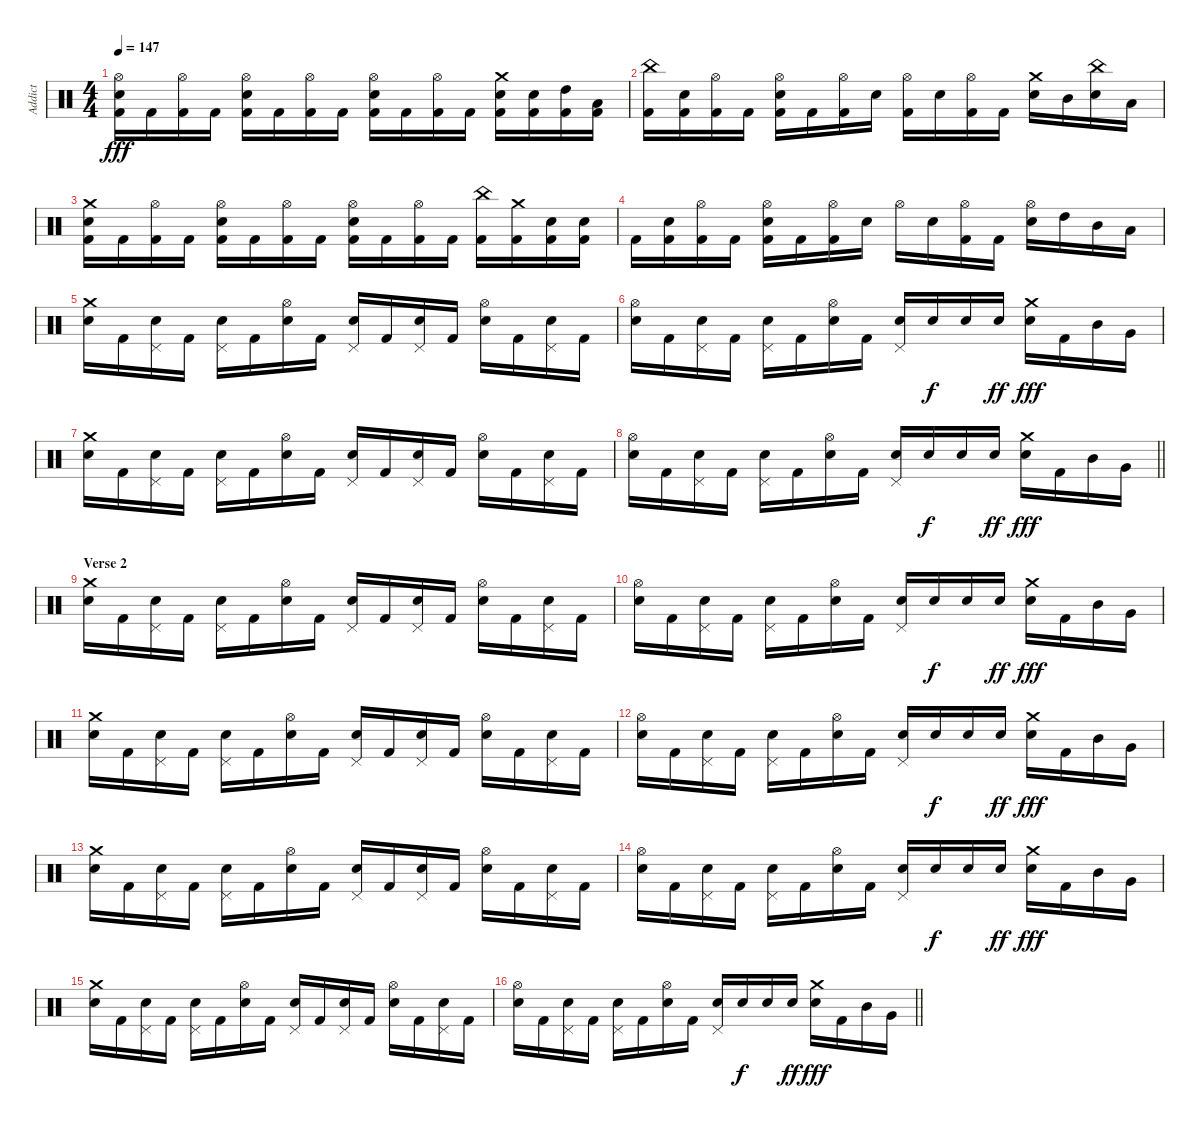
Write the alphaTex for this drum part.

\track ("Addict" "Addict") {instrument percussion}
\staff {score}
\articulation defaults
\ts (4 4)
\tempo 147
\clef neutral
\ks c
("Kick (hit) 2" "Snare (hit) 2" "Hi-Hat (open)").16{dy fff} "Kick (hit) 2".16 ("Kick (hit) 2" "Hi-Hat (open)").16 "Kick (hit) 2".16 ("Kick (hit) 2" "Snare (hit) 2" "Hi-Hat (open)").16 "Kick (hit) 2".16 ("Kick (hit) 2" "Hi-Hat (open)").16 "Kick (hit) 2".16 ("Kick (hit) 2" "Snare (hit) 2" "Hi-Hat (open)").16 "Kick (hit) 2".16 ("Kick (hit) 2" "Hi-Hat (open)").16 "Kick (hit) 2".16 ("Kick (hit) 2" "Snare (hit) 2" "Crash medium (hit)").16 ("Kick (hit) 2" "Snare (hit) 2").16 ("Kick (hit) 2" "High Tom (hit)").16 ("Kick (hit) 2" "Low Tom (hit)").16 |
("Kick (hit) 2" "China (hit)").16 ("Kick (hit) 2" "Snare (hit) 2").16 ("Kick (hit) 2" "Hi-Hat (open)").16 "Kick (hit) 2".16 ("Kick (hit) 2" "Snare (hit) 2" "Hi-Hat (open)").16 "Kick (hit) 2".16 ("Kick (hit) 2" "Hi-Hat (open)").16 "Snare (hit) 2".16 ("Kick (hit) 2" "Hi-Hat (open)").16 "Snare (hit) 2".16 ("Kick (hit) 2" "Hi-Hat (open)").16 "Kick (hit) 2".16 ("Snare (hit) 2" "Crash medium (hit)").16 "Mid Tom (hit)".16 ("Snare (hit) 2" "China (hit)").16 "Low Tom (hit)".16 |
("Kick (hit) 2" "Snare (hit) 2" "Crash medium (hit)").16 "Kick (hit) 2".16 ("Kick (hit) 2" "Hi-Hat (open)").16 "Kick (hit) 2".16 ("Kick (hit) 2" "Snare (hit) 2" "Hi-Hat (open)").16 "Kick (hit) 2".16 ("Kick (hit) 2" "Hi-Hat (open)").16 "Kick (hit) 2".16 ("Kick (hit) 2" "Snare (hit) 2" "Hi-Hat (open)").16 "Kick (hit) 2".16 ("Kick (hit) 2" "Hi-Hat (open)").16 "Kick (hit) 2".16 ("Kick (hit) 2" "China (hit)").16 ("Kick (hit) 2" "Crash medium (hit)").16 ("Kick (hit) 2" "Snare (hit) 2").16 ("Kick (hit) 2" "Snare (hit) 2").16 |
"Kick (hit) 2".16 ("Kick (hit) 2" "Snare (hit) 2").16 ("Kick (hit) 2" "Hi-Hat (open)").16 "Kick (hit) 2".16 ("Kick (hit) 2" "Snare (hit) 2" "Hi-Hat (open)").16 "Kick (hit) 2".16 ("Kick (hit) 2" "Hi-Hat (open)").16 "Snare (hit) 2".16 "Hi-Hat (open)".16 "Snare (hit) 2".16 ("Kick (hit) 2" "Hi-Hat (open)").16 "Kick (hit) 2".16 ("Snare (hit) 2" "Hi-Hat (open)").16 "High Tom (hit)".16 "Mid Tom (hit)".16 "Low Tom (hit)".16 |
("Snare (hit) 2" "Crash medium (hit)").16 "Kick (hit) 2".16 ("Snare (hit) 2" "Pedal Hi-Hat (hit)").16 "Kick (hit) 2".16 ("Snare (hit) 2" "Pedal Hi-Hat (hit)").16 "Kick (hit) 2".16 ("Snare (hit) 2" "Hi-Hat (open)").16 "Kick (hit) 2".16 ("Snare (hit) 2" "Pedal Hi-Hat (hit)").16 "Kick (hit) 2".16 ("Snare (hit) 2" "Pedal Hi-Hat (hit)").16 "Kick (hit) 2".16 ("Snare (hit) 2" "Hi-Hat (open)").16 "Kick (hit) 2".16 ("Snare (hit) 2" "Pedal Hi-Hat (hit)").16 "Kick (hit) 2".16 |
("Snare (hit) 2" "Hi-Hat (open)").16 "Kick (hit) 2".16 ("Snare (hit) 2" "Pedal Hi-Hat (hit)").16 "Kick (hit) 2".16 ("Snare (hit) 2" "Pedal Hi-Hat (hit)").16 "Kick (hit) 2".16 ("Snare (hit) 2" "Hi-Hat (open)").16 "Kick (hit) 2".16 ("Snare (hit) 2" "Pedal Hi-Hat (hit)").16 "Snare (hit) 2".16{dy f} "Snare (hit) 2".16 "Snare (hit) 2".16{dy ff} ("Snare (hit) 2" "Crash medium (hit)").16{dy fff} "Kick (hit) 2".16 "Mid Tom (hit)".16 "Very Low Tom (hit)".16 |
("Snare (hit) 2" "Crash medium (hit)").16 "Kick (hit) 2".16 ("Snare (hit) 2" "Pedal Hi-Hat (hit)").16 "Kick (hit) 2".16 ("Snare (hit) 2" "Pedal Hi-Hat (hit)").16 "Kick (hit) 2".16 ("Snare (hit) 2" "Hi-Hat (open)").16 "Kick (hit) 2".16 ("Snare (hit) 2" "Pedal Hi-Hat (hit)").16 "Kick (hit) 2".16 ("Snare (hit) 2" "Pedal Hi-Hat (hit)").16 "Kick (hit) 2".16 ("Snare (hit) 2" "Hi-Hat (open)").16 "Kick (hit) 2".16 ("Snare (hit) 2" "Pedal Hi-Hat (hit)").16 "Kick (hit) 2".16 |
\barLineRight lightlight
("Snare (hit) 2" "Hi-Hat (open)").16 "Kick (hit) 2".16 ("Snare (hit) 2" "Pedal Hi-Hat (hit)").16 "Kick (hit) 2".16 ("Snare (hit) 2" "Pedal Hi-Hat (hit)").16 "Kick (hit) 2".16 ("Snare (hit) 2" "Hi-Hat (open)").16 "Kick (hit) 2".16 ("Snare (hit) 2" "Pedal Hi-Hat (hit)").16 "Snare (hit) 2".16{dy f} "Snare (hit) 2".16 "Snare (hit) 2".16{dy ff} ("Snare (hit) 2" "Crash medium (hit)").16{dy fff} "Kick (hit) 2".16 "Mid Tom (hit)".16 "Very Low Tom (hit)".16 |
\section ("" "Verse 2")
("Snare (hit) 2" "Crash medium (hit)").16 "Kick (hit) 2".16 ("Snare (hit) 2" "Pedal Hi-Hat (hit)").16 "Kick (hit) 2".16 ("Snare (hit) 2" "Pedal Hi-Hat (hit)").16 "Kick (hit) 2".16 ("Snare (hit) 2" "Hi-Hat (open)").16 "Kick (hit) 2".16 ("Snare (hit) 2" "Pedal Hi-Hat (hit)").16 "Kick (hit) 2".16 ("Snare (hit) 2" "Pedal Hi-Hat (hit)").16 "Kick (hit) 2".16 ("Snare (hit) 2" "Hi-Hat (open)").16 "Kick (hit) 2".16 ("Snare (hit) 2" "Pedal Hi-Hat (hit)").16 "Kick (hit) 2".16 |
("Snare (hit) 2" "Hi-Hat (open)").16 "Kick (hit) 2".16 ("Snare (hit) 2" "Pedal Hi-Hat (hit)").16 "Kick (hit) 2".16 ("Snare (hit) 2" "Pedal Hi-Hat (hit)").16 "Kick (hit) 2".16 ("Snare (hit) 2" "Hi-Hat (open)").16 "Kick (hit) 2".16 ("Snare (hit) 2" "Pedal Hi-Hat (hit)").16 "Snare (hit) 2".16{dy f} "Snare (hit) 2".16 "Snare (hit) 2".16{dy ff} ("Snare (hit) 2" "Crash medium (hit)").16{dy fff} "Kick (hit) 2".16 "Mid Tom (hit)".16 "Very Low Tom (hit)".16 |
("Snare (hit) 2" "Crash medium (hit)").16 "Kick (hit) 2".16 ("Snare (hit) 2" "Pedal Hi-Hat (hit)").16 "Kick (hit) 2".16 ("Snare (hit) 2" "Pedal Hi-Hat (hit)").16 "Kick (hit) 2".16 ("Snare (hit) 2" "Hi-Hat (open)").16 "Kick (hit) 2".16 ("Snare (hit) 2" "Pedal Hi-Hat (hit)").16 "Kick (hit) 2".16 ("Snare (hit) 2" "Pedal Hi-Hat (hit)").16 "Kick (hit) 2".16 ("Snare (hit) 2" "Hi-Hat (open)").16 "Kick (hit) 2".16 ("Snare (hit) 2" "Pedal Hi-Hat (hit)").16 "Kick (hit) 2".16 |
("Snare (hit) 2" "Hi-Hat (open)").16 "Kick (hit) 2".16 ("Snare (hit) 2" "Pedal Hi-Hat (hit)").16 "Kick (hit) 2".16 ("Snare (hit) 2" "Pedal Hi-Hat (hit)").16 "Kick (hit) 2".16 ("Snare (hit) 2" "Hi-Hat (open)").16 "Kick (hit) 2".16 ("Snare (hit) 2" "Pedal Hi-Hat (hit)").16 "Snare (hit) 2".16{dy f} "Snare (hit) 2".16 "Snare (hit) 2".16{dy ff} ("Snare (hit) 2" "Crash medium (hit)").16{dy fff} "Kick (hit) 2".16 "Mid Tom (hit)".16 "Very Low Tom (hit)".16 |
("Snare (hit) 2" "Crash medium (hit)").16 "Kick (hit) 2".16 ("Snare (hit) 2" "Pedal Hi-Hat (hit)").16 "Kick (hit) 2".16 ("Snare (hit) 2" "Pedal Hi-Hat (hit)").16 "Kick (hit) 2".16 ("Snare (hit) 2" "Hi-Hat (open)").16 "Kick (hit) 2".16 ("Snare (hit) 2" "Pedal Hi-Hat (hit)").16 "Kick (hit) 2".16 ("Snare (hit) 2" "Pedal Hi-Hat (hit)").16 "Kick (hit) 2".16 ("Snare (hit) 2" "Hi-Hat (open)").16 "Kick (hit) 2".16 ("Snare (hit) 2" "Pedal Hi-Hat (hit)").16 "Kick (hit) 2".16 |
("Snare (hit) 2" "Hi-Hat (open)").16 "Kick (hit) 2".16 ("Snare (hit) 2" "Pedal Hi-Hat (hit)").16 "Kick (hit) 2".16 ("Snare (hit) 2" "Pedal Hi-Hat (hit)").16 "Kick (hit) 2".16 ("Snare (hit) 2" "Hi-Hat (open)").16 "Kick (hit) 2".16 ("Snare (hit) 2" "Pedal Hi-Hat (hit)").16 "Snare (hit) 2".16{dy f} "Snare (hit) 2".16 "Snare (hit) 2".16{dy ff} ("Snare (hit) 2" "Crash medium (hit)").16{dy fff} "Kick (hit) 2".16 "Mid Tom (hit)".16 "Very Low Tom (hit)".16 |
("Snare (hit) 2" "Crash medium (hit)").16 "Kick (hit) 2".16 ("Snare (hit) 2" "Pedal Hi-Hat (hit)").16 "Kick (hit) 2".16 ("Snare (hit) 2" "Pedal Hi-Hat (hit)").16 "Kick (hit) 2".16 ("Snare (hit) 2" "Hi-Hat (open)").16 "Kick (hit) 2".16 ("Snare (hit) 2" "Pedal Hi-Hat (hit)").16 "Kick (hit) 2".16 ("Snare (hit) 2" "Pedal Hi-Hat (hit)").16 "Kick (hit) 2".16 ("Snare (hit) 2" "Hi-Hat (open)").16 "Kick (hit) 2".16 ("Snare (hit) 2" "Pedal Hi-Hat (hit)").16 "Kick (hit) 2".16 |
\barLineRight lightlight
("Snare (hit) 2" "Hi-Hat (open)").16 "Kick (hit) 2".16 ("Snare (hit) 2" "Pedal Hi-Hat (hit)").16 "Kick (hit) 2".16 ("Snare (hit) 2" "Pedal Hi-Hat (hit)").16 "Kick (hit) 2".16 ("Snare (hit) 2" "Hi-Hat (open)").16 "Kick (hit) 2".16 ("Snare (hit) 2" "Pedal Hi-Hat (hit)").16 "Snare (hit) 2".16{dy f} "Snare (hit) 2".16 "Snare (hit) 2".16{dy ff} ("Snare (hit) 2" "Crash medium (hit)").16{dy fff} "Kick (hit) 2".16 "Mid Tom (hit)".16 "Very Low Tom (hit)".16
